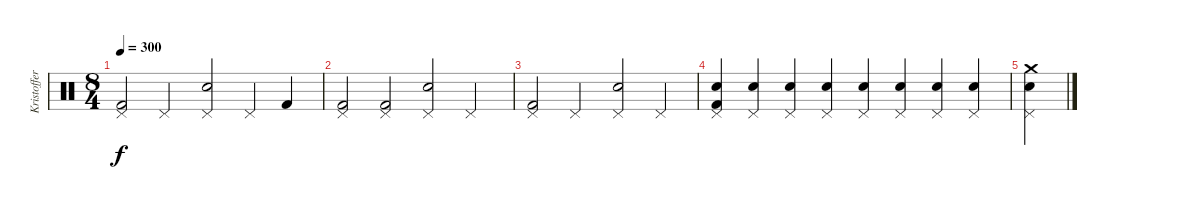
\track ("Kristoffer Söderström" "Kristoffer") {instrument percussion}
\staff {score}
\articulation defaults
\ts (8 4)
\tempo 300
\clef neutral
\ks c
("Pedal Hi-Hat (hit)" "Kick (hit) 2").2{dy f} "Pedal Hi-Hat (hit)".2 ("Snare (hit) 2" "Pedal Hi-Hat (hit)").2 "Pedal Hi-Hat (hit)".4 "Kick (hit) 2".4 |
("Pedal Hi-Hat (hit)" "Kick (hit) 2").2 ("Pedal Hi-Hat (hit)" "Kick (hit) 2").2 ("Snare (hit) 2" "Pedal Hi-Hat (hit)").2 "Pedal Hi-Hat (hit)".2 |
("Pedal Hi-Hat (hit)" "Kick (hit) 2").2 "Pedal Hi-Hat (hit)".2 ("Snare (hit) 2" "Pedal Hi-Hat (hit)").2 "Pedal Hi-Hat (hit)".4 |
("Snare (hit) 2" "Pedal Hi-Hat (hit)" "Kick (hit) 2").4 ("Snare (hit) 2" "Pedal Hi-Hat (hit)").4 ("Snare (hit) 2" "Pedal Hi-Hat (hit)").4 ("Snare (hit) 2" "Pedal Hi-Hat (hit)").4 ("Snare (hit) 2" "Pedal Hi-Hat (hit)").4 ("Snare (hit) 2" "Pedal Hi-Hat (hit)").4 ("Snare (hit) 2" "Pedal Hi-Hat (hit)").4 ("Snare (hit) 2" "Pedal Hi-Hat (hit)").4 |
("Crash medium (hit)" "Snare (hit) 2" "Pedal Hi-Hat (hit)").4
